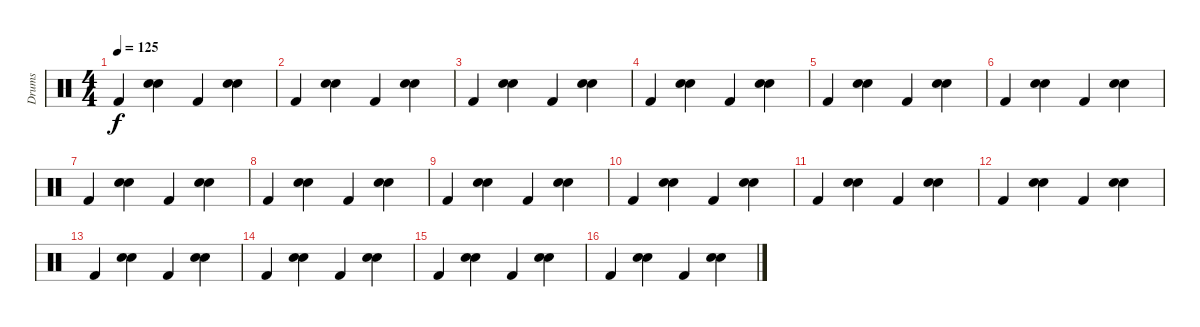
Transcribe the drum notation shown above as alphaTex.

\track ("Drums" "Drums") {instrument percussion}
\staff {score}
\articulation defaults
\ts (4 4)
\tempo 125
\clef neutral
\ks c "Kick (hit) 2".4{dy f}
("Electric Snare (hit)" "Hand Clap (hit)").4 "Kick (hit) 2".4 ("Electric Snare (hit)" "Hand Clap (hit)").4 |
"Kick (hit) 2".4 ("Electric Snare (hit)" "Hand Clap (hit)").4 "Kick (hit) 2".4 ("Electric Snare (hit)" "Hand Clap (hit)").4 |
"Kick (hit) 2".4 ("Electric Snare (hit)" "Hand Clap (hit)").4 "Kick (hit) 2".4 ("Electric Snare (hit)" "Hand Clap (hit)").4 |
"Kick (hit) 2".4 ("Electric Snare (hit)" "Hand Clap (hit)").4 "Kick (hit) 2".4 ("Electric Snare (hit)" "Hand Clap (hit)").4 |
"Kick (hit) 2".4 ("Electric Snare (hit)" "Hand Clap (hit)").4 "Kick (hit) 2".4 ("Electric Snare (hit)" "Hand Clap (hit)").4 |
"Kick (hit) 2".4 ("Electric Snare (hit)" "Hand Clap (hit)").4 "Kick (hit) 2".4 ("Electric Snare (hit)" "Hand Clap (hit)").4 |
"Kick (hit) 2".4 ("Electric Snare (hit)" "Hand Clap (hit)").4 "Kick (hit) 2".4 ("Electric Snare (hit)" "Hand Clap (hit)").4 |
"Kick (hit) 2".4 ("Electric Snare (hit)" "Hand Clap (hit)").4 "Kick (hit) 2".4 ("Electric Snare (hit)" "Hand Clap (hit)").4 |
"Kick (hit) 2".4 ("Electric Snare (hit)" "Hand Clap (hit)").4 "Kick (hit) 2".4 ("Electric Snare (hit)" "Hand Clap (hit)").4 |
"Kick (hit) 2".4 ("Electric Snare (hit)" "Hand Clap (hit)").4 "Kick (hit) 2".4 ("Electric Snare (hit)" "Hand Clap (hit)").4 |
"Kick (hit) 2".4 ("Electric Snare (hit)" "Hand Clap (hit)").4 "Kick (hit) 2".4 ("Electric Snare (hit)" "Hand Clap (hit)").4 |
"Kick (hit) 2".4 ("Electric Snare (hit)" "Hand Clap (hit)").4 "Kick (hit) 2".4 ("Electric Snare (hit)" "Hand Clap (hit)").4 |
"Kick (hit) 2".4 ("Electric Snare (hit)" "Hand Clap (hit)").4 "Kick (hit) 2".4 ("Electric Snare (hit)" "Hand Clap (hit)").4 |
"Kick (hit) 2".4 ("Electric Snare (hit)" "Hand Clap (hit)").4 "Kick (hit) 2".4 ("Electric Snare (hit)" "Hand Clap (hit)").4 |
"Kick (hit) 2".4 ("Electric Snare (hit)" "Hand Clap (hit)").4 "Kick (hit) 2".4 ("Electric Snare (hit)" "Hand Clap (hit)").4 |
"Kick (hit) 2".4 ("Electric Snare (hit)" "Hand Clap (hit)").4 "Kick (hit) 2".4 ("Electric Snare (hit)" "Hand Clap (hit)").4
